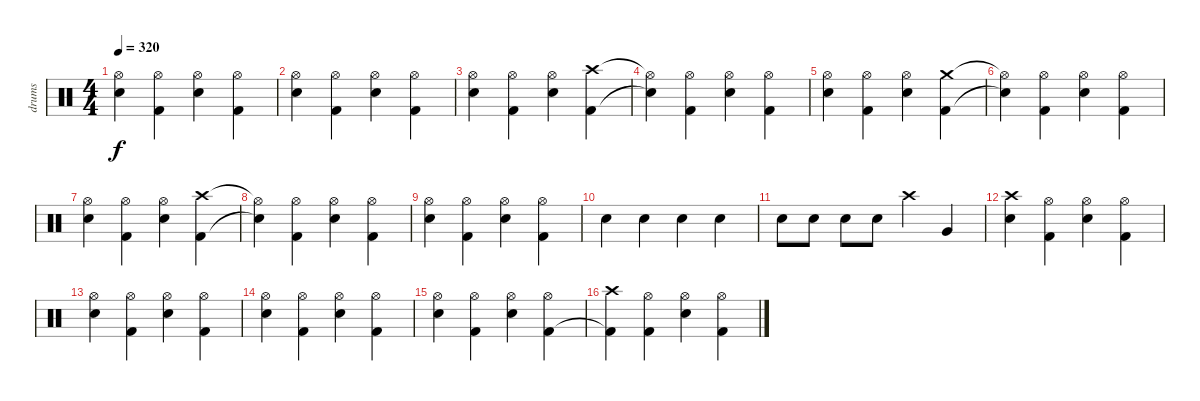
\track ("drums" "drums") {instrument percussion}
\staff {score}
\articulation defaults
\ts (4 4)
\tempo 320
\clef neutral
\ks c
("Hi-Hat (open)" "Snare (hit) 2").4{dy f} ("Hi-Hat (open)" "Kick (hit) 2").4 ("Hi-Hat (open)" "Snare (hit) 2").4 ("Hi-Hat (open)" "Kick (hit) 2").4 |
("Hi-Hat (open)" "Snare (hit) 2").4 ("Hi-Hat (open)" "Kick (hit) 2").4 ("Hi-Hat (open)" "Snare (hit) 2").4 ("Hi-Hat (open)" "Kick (hit) 2").4 |
("Hi-Hat (open)" "Snare (hit) 2").4 ("Hi-Hat (open)" "Kick (hit) 2").4 ("Hi-Hat (open)" "Snare (hit) 2").4 ("Crash high (hit)" "Kick (hit) 2").4 |
("Hi-Hat (open)"{t} "Snare (hit)"{t}).4 ("Hi-Hat (open)" "Kick (hit) 2").4 ("Hi-Hat (open)" "Snare (hit) 2").4 ("Hi-Hat (open)" "Kick (hit) 2").4 |
("Hi-Hat (open)" "Snare (hit) 2").4 ("Hi-Hat (open)" "Kick (hit) 2").4 ("Hi-Hat (open)" "Snare (hit) 2").4 ("Crash medium (hit)" "Kick (hit) 2").4 |
("Hi-Hat (open)"{t} "Snare (hit)"{t}).4 ("Hi-Hat (open)" "Kick (hit) 2").4 ("Hi-Hat (open)" "Snare (hit) 2").4 ("Hi-Hat (open)" "Kick (hit) 2").4 |
("Hi-Hat (open)" "Snare (hit) 2").4 ("Hi-Hat (open)" "Kick (hit) 2").4 ("Hi-Hat (open)" "Snare (hit) 2").4 ("Crash high (hit)" "Kick (hit) 2").4 |
("Hi-Hat (open)"{t} "Snare (hit)"{t}).4 ("Hi-Hat (open)" "Kick (hit) 2").4 ("Hi-Hat (open)" "Snare (hit) 2").4 ("Hi-Hat (open)" "Kick (hit) 2").4 |
("Hi-Hat (open)" "Snare (hit) 2").4 ("Hi-Hat (open)" "Kick (hit) 2").4 ("Hi-Hat (open)" "Snare (hit) 2").4 ("Hi-Hat (open)" "Kick (hit) 2").4 |
"Snare (hit) 2".4 "Snare (hit) 2".4 "Snare (hit) 2".4 "Snare (hit) 2".4 |
"Snare (hit) 2".8 "Snare (hit) 2".8 "Snare (hit) 2".8 "Snare (hit) 2".8 "Crash high (hit)".4 "Very Low Tom (hit)".4 |
("Crash high (hit)" "Snare (hit) 2").4 ("Hi-Hat (open)" "Kick (hit) 2").4 ("Hi-Hat (open)" "Snare (hit) 2").4 ("Hi-Hat (open)" "Kick (hit) 2").4 |
("Hi-Hat (open)" "Snare (hit) 2").4 ("Hi-Hat (open)" "Kick (hit) 2").4 ("Hi-Hat (open)" "Snare (hit) 2").4 ("Hi-Hat (open)" "Kick (hit) 2").4 |
("Hi-Hat (open)" "Snare (hit) 2").4 ("Hi-Hat (open)" "Kick (hit) 2").4 ("Hi-Hat (open)" "Snare (hit) 2").4 ("Hi-Hat (open)" "Kick (hit) 2").4 |
("Hi-Hat (open)" "Snare (hit) 2").4 ("Hi-Hat (open)" "Kick (hit) 2").4 ("Hi-Hat (open)" "Snare (hit) 2").4 ("Hi-Hat (open)" "Kick (hit) 2").4 |
("Crash high (hit)" "Kick (hit) 2"{t}).4 ("Hi-Hat (open)" "Kick (hit) 2").4 ("Hi-Hat (open)" "Snare (hit) 2").4 ("Hi-Hat (open)" "Kick (hit) 2").4
